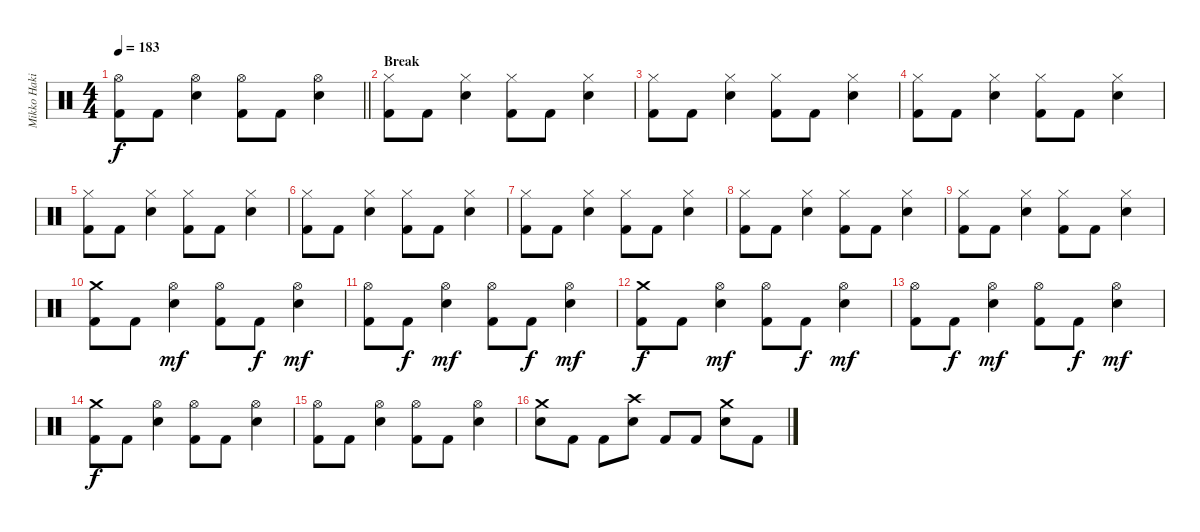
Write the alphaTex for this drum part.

\track ("Mikko Hakila - Drums" "Mikko Haki") {instrument percussion}
\staff {score}
\articulation defaults
\ts (4 4)
\tempo 183
\clef neutral
\barLineRight lightlight
\ks c
("Hi-Hat (open)" "Kick (hit) 2").8{dy f} "Kick (hit) 2".8 ("Hi-Hat (open)" "Electric Snare (hit)").4 ("Hi-Hat (open)" "Kick (hit) 2").8 "Kick (hit) 2".8 ("Hi-Hat (open)" "Electric Snare (hit)").4 |
\section ("" "Break")
("Hi-Hat (closed)" "Kick (hit) 2").8 "Kick (hit) 2".8 ("Hi-Hat (closed)" "Electric Snare (hit)").4 ("Hi-Hat (closed)" "Kick (hit) 2").8 "Kick (hit) 2".8 ("Hi-Hat (closed)" "Electric Snare (hit)").4 |
("Hi-Hat (closed)" "Kick (hit) 2").8 "Kick (hit) 2".8 ("Hi-Hat (closed)" "Electric Snare (hit)").4 ("Hi-Hat (closed)" "Kick (hit) 2").8 "Kick (hit) 2".8 ("Hi-Hat (closed)" "Electric Snare (hit)").4 |
("Hi-Hat (closed)" "Kick (hit) 2").8 "Kick (hit) 2".8 ("Hi-Hat (closed)" "Electric Snare (hit)").4 ("Hi-Hat (closed)" "Kick (hit) 2").8 "Kick (hit) 2".8 ("Hi-Hat (closed)" "Electric Snare (hit)").4 |
("Hi-Hat (closed)" "Kick (hit) 2").8 "Kick (hit) 2".8 ("Hi-Hat (closed)" "Electric Snare (hit)").4 ("Hi-Hat (closed)" "Kick (hit) 2").8 "Kick (hit) 2".8 ("Hi-Hat (closed)" "Electric Snare (hit)").4 |
("Hi-Hat (closed)" "Kick (hit) 2").8 "Kick (hit) 2".8 ("Hi-Hat (closed)" "Electric Snare (hit)").4 ("Hi-Hat (closed)" "Kick (hit) 2").8 "Kick (hit) 2".8 ("Hi-Hat (closed)" "Electric Snare (hit)").4 |
("Hi-Hat (closed)" "Kick (hit) 2").8 "Kick (hit) 2".8 ("Hi-Hat (closed)" "Electric Snare (hit)").4 ("Hi-Hat (closed)" "Kick (hit) 2").8 "Kick (hit) 2".8 ("Hi-Hat (closed)" "Electric Snare (hit)").4 |
("Hi-Hat (closed)" "Kick (hit) 2").8 "Kick (hit) 2".8 ("Hi-Hat (closed)" "Electric Snare (hit)").4 ("Hi-Hat (closed)" "Kick (hit) 2").8 "Kick (hit) 2".8 ("Hi-Hat (closed)" "Electric Snare (hit)").4 |
("Hi-Hat (closed)" "Kick (hit) 2").8 "Kick (hit) 2".8 ("Hi-Hat (closed)" "Electric Snare (hit)").4 ("Hi-Hat (closed)" "Kick (hit) 2").8 "Kick (hit) 2".8 ("Hi-Hat (closed)" "Electric Snare (hit)").4 |
("Crash medium (hit)" "Kick (hit) 2").8 "Kick (hit) 2".8 ("Hi-Hat (open)" "Electric Snare (hit)").4{dy mf} ("Hi-Hat (open)" "Kick (hit) 2").8 "Kick (hit) 2".8{dy f} ("Hi-Hat (open)" "Electric Snare (hit)").4{dy mf} |
("Hi-Hat (open)" "Kick (hit) 2").8 "Kick (hit) 2".8{dy f} ("Hi-Hat (open)" "Electric Snare (hit)").4{dy mf} ("Hi-Hat (open)" "Kick (hit) 2").8 "Kick (hit) 2".8{dy f} ("Hi-Hat (open)" "Electric Snare (hit)").4{dy mf} |
("Crash medium (hit)" "Kick (hit) 2").8{dy f} "Kick (hit) 2".8 ("Hi-Hat (open)" "Electric Snare (hit)").4{dy mf} ("Hi-Hat (open)" "Kick (hit) 2").8 "Kick (hit) 2".8{dy f} ("Hi-Hat (open)" "Electric Snare (hit)").4{dy mf} |
("Hi-Hat (open)" "Kick (hit) 2").8 "Kick (hit) 2".8{dy f} ("Hi-Hat (open)" "Electric Snare (hit)").4{dy mf} ("Hi-Hat (open)" "Kick (hit) 2").8 "Kick (hit) 2".8{dy f} ("Hi-Hat (open)" "Electric Snare (hit)").4{dy mf} |
("Crash medium (hit)" "Kick (hit) 2").8{dy f} "Kick (hit) 2".8 ("Hi-Hat (open)" "Electric Snare (hit)").4 ("Hi-Hat (open)" "Kick (hit) 2").8 "Kick (hit) 2".8 ("Hi-Hat (open)" "Electric Snare (hit)").4 |
("Hi-Hat (open)" "Kick (hit) 2").8 "Kick (hit) 2".8 ("Hi-Hat (open)" "Electric Snare (hit)").4 ("Hi-Hat (open)" "Kick (hit) 2").8 "Kick (hit) 2".8 ("Hi-Hat (open)" "Electric Snare (hit)").4 |
("Crash medium (hit)" "Electric Snare (hit)").8 "Kick (hit) 2".8 "Kick (hit) 2".8 ("Crash high (hit)" "Electric Snare (hit)").8 "Kick (hit) 2".8 "Kick (hit) 2".8 ("Crash medium (hit)" "Electric Snare (hit)").8 "Kick (hit) 2".8
